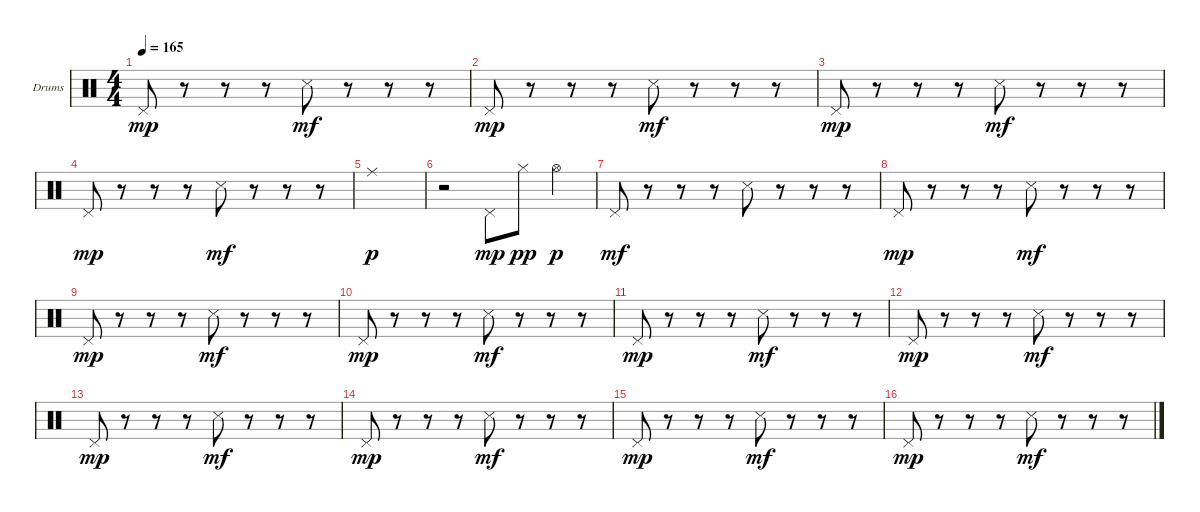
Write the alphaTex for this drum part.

\defaultSystemsLayout 4
\bracketExtendMode groupsimilarinstruments
\firstSystemTrackNameOrientation horizontal
\otherSystemsTrackNameOrientation horizontal
\track ("Drumkit" "Drums") {instrument percussion}
\staff {score}
\articulation defaults
\ts (4 4)
\tempo 165
\clef neutral
\ks c "Pedal Hi-Hat (hit)".8{dy mp}
r.8 r.8 r.8 "Snare (side stick) 3".8{dy mf} r.8 r.8 r.8 |
"Pedal Hi-Hat (hit)".8{dy mp} r.8 r.8 r.8 "Snare (side stick) 3".8{dy mf} r.8 r.8 r.8 |
"Pedal Hi-Hat (hit)".8{dy mp} r.8 r.8 r.8 "Snare (side stick) 3".8{dy mf} r.8 r.8 r.8 |
"Pedal Hi-Hat (hit)".8{dy mp} r.8 r.8 r.8 "Snare (side stick) 3".8{dy mf} r.8 r.8 r.8 |
"Ride (middle)".1{dy p} |
r.2 "Pedal Hi-Hat (hit)".8{dy mp} "Hi-Hat (closed)".8{dy pp} "Hi-Hat (open)".4{dy p} |
"Pedal Hi-Hat (hit)".8{dy mf} r.8 r.8 r.8 "Snare (side stick) 3".8 r.8 r.8 r.8 |
"Pedal Hi-Hat (hit)".8{dy mp} r.8 r.8 r.8 "Snare (side stick) 3".8{dy mf} r.8 r.8 r.8 |
"Pedal Hi-Hat (hit)".8{dy mp} r.8 r.8 r.8 "Snare (side stick) 3".8{dy mf} r.8 r.8 r.8 |
"Pedal Hi-Hat (hit)".8{dy mp} r.8 r.8 r.8 "Snare (side stick) 3".8{dy mf} r.8 r.8 r.8 |
"Pedal Hi-Hat (hit)".8{dy mp} r.8 r.8 r.8 "Snare (side stick) 3".8{dy mf} r.8 r.8 r.8 |
"Pedal Hi-Hat (hit)".8{dy mp} r.8 r.8 r.8 "Snare (side stick) 3".8{dy mf} r.8 r.8 r.8 |
"Pedal Hi-Hat (hit)".8{dy mp} r.8 r.8 r.8 "Snare (side stick) 3".8{dy mf} r.8 r.8 r.8 |
"Pedal Hi-Hat (hit)".8{dy mp} r.8 r.8 r.8 "Snare (side stick) 3".8{dy mf} r.8 r.8 r.8 |
"Pedal Hi-Hat (hit)".8{dy mp} r.8 r.8 r.8 "Snare (side stick) 3".8{dy mf} r.8 r.8 r.8 |
"Pedal Hi-Hat (hit)".8{dy mp} r.8 r.8 r.8 "Snare (side stick) 3".8{dy mf} r.8 r.8 r.8
